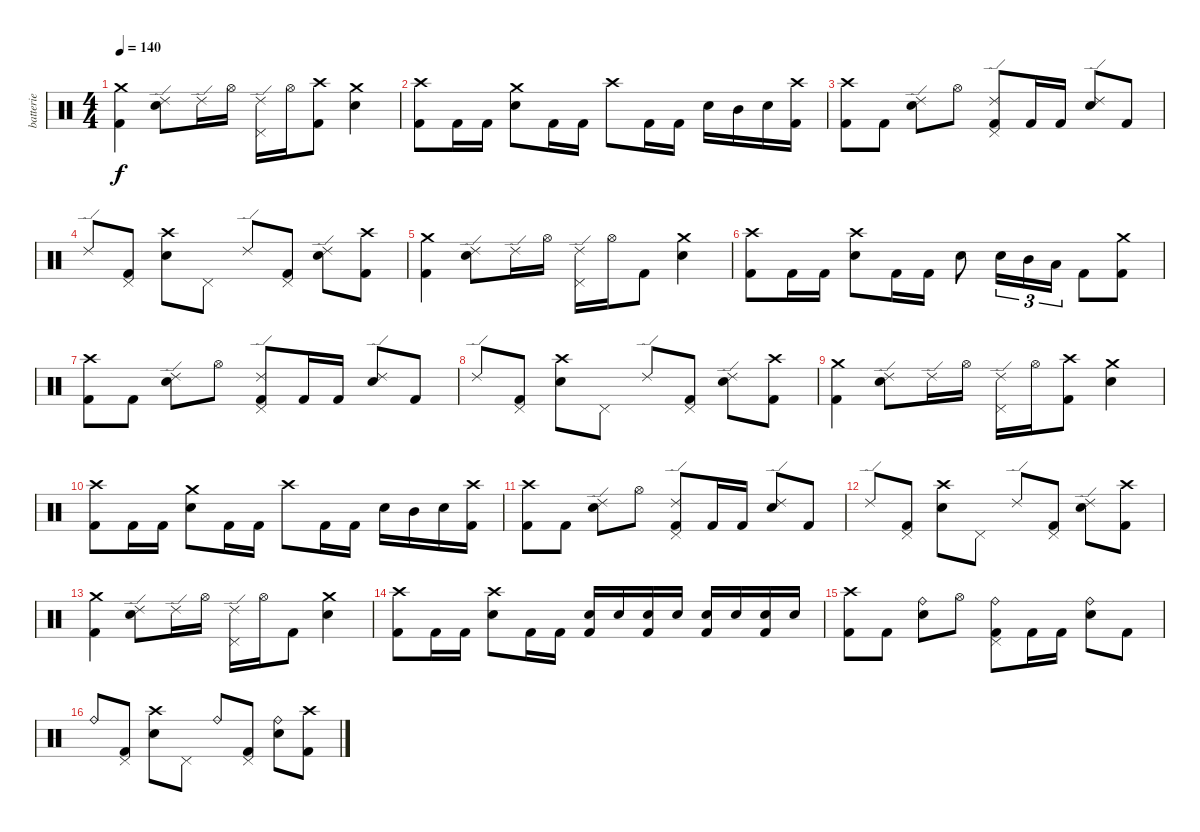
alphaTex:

\track ("batterie" "batterie") {instrument percussion}
\staff {score}
\articulation defaults
\ts (4 4)
\tempo 140
\clef neutral
\ks c
("Crash medium (hit)" "Kick (hit) 2").4{dy f} ("Ride (edge) 2" "Electric Snare (hit)").8 "Ride (edge) 2".16 "Hi-Hat (open)".16 ("Ride (edge) 2" "Pedal Hi-Hat (hit)").16 "Hi-Hat (open)".16 ("Crash high (hit)" "Kick (hit) 2").8 ("Crash medium (hit)" "Electric Snare (hit)").4 |
("Crash high (hit)" "Kick (hit) 2").8 "Kick (hit) 2".16 "Kick (hit) 2".16 ("Crash medium (hit)" "Electric Snare (hit)").8 "Kick (hit) 2".16 "Kick (hit) 2".16 "Crash high (hit)".8 "Kick (hit) 2".16 "Kick (hit) 2".16 "Electric Snare (hit)".16 "Mid Tom (hit)".16 "Electric Snare (hit)".16 ("Crash high (hit)" "Kick (hit) 2").16 |
("Crash high (hit)" "Kick (hit) 2").8 "Kick (hit) 2".8 ("Ride (edge) 2" "Electric Snare (hit)").8 "Hi-Hat (open)".8 ("Ride (edge) 2" "Pedal Hi-Hat (hit)" "Kick (hit) 2").8 "Kick (hit) 2".16 "Kick (hit) 2".16 ("Ride (edge) 2" "Electric Snare (hit)").8 "Kick (hit) 2".8 |
"Ride (edge) 2".8 ("Pedal Hi-Hat (hit)" "Kick (hit) 2").8 ("Crash high (hit)" "Electric Snare (hit)").8 "Pedal Hi-Hat (hit)".8 "Ride (edge) 2".8 ("Pedal Hi-Hat (hit)" "Kick (hit) 2").8 ("Ride (edge) 2" "Electric Snare (hit)").8 ("Crash high (hit)" "Kick (hit) 2").8 |
("Crash medium (hit)" "Kick (hit) 2").4 ("Ride (edge) 2" "Electric Snare (hit)").8 "Ride (edge) 2".16 "Hi-Hat (open)".16 ("Ride (edge) 2" "Pedal Hi-Hat (hit)").16 "Hi-Hat (open)".16 "Kick (hit) 2".8 ("Crash medium (hit)" "Electric Snare (hit)").4 |
("Crash high (hit)" "Kick (hit) 2").8 "Kick (hit) 2".16 "Kick (hit) 2".16 ("Crash high (hit)" "Electric Snare (hit)").8 "Kick (hit) 2".16 "Kick (hit) 2".16 "Electric Snare (hit)".8 "Electric Snare (hit)".16{tu (3 2)} "Mid Tom (hit)".16{tu (3 2)} "Low Floor Tom (hit)".16{tu (3 2)} "Kick (hit) 2".8 ("Crash medium (hit)" "Kick (hit) 2").8 |
("Crash high (hit)" "Kick (hit) 2").8 "Kick (hit) 2".8 ("Ride (edge) 2" "Electric Snare (hit)").8 "Hi-Hat (open)".8 ("Ride (edge) 2" "Pedal Hi-Hat (hit)" "Kick (hit) 2").8 "Kick (hit) 2".16 "Kick (hit) 2".16 ("Ride (edge) 2" "Electric Snare (hit)").8 "Kick (hit) 2".8 |
"Ride (edge) 2".8 ("Pedal Hi-Hat (hit)" "Kick (hit) 2").8 ("Crash high (hit)" "Electric Snare (hit)").8 "Pedal Hi-Hat (hit)".8 "Ride (edge) 2".8 ("Pedal Hi-Hat (hit)" "Kick (hit) 2").8 ("Ride (edge) 2" "Electric Snare (hit)").8 ("Crash high (hit)" "Kick (hit) 2").8 |
("Crash medium (hit)" "Kick (hit) 2").4 ("Ride (edge) 2" "Electric Snare (hit)").8 "Ride (edge) 2".16 "Hi-Hat (open)".16 ("Ride (edge) 2" "Pedal Hi-Hat (hit)").16 "Hi-Hat (open)".16 ("Crash high (hit)" "Kick (hit) 2").8 ("Crash medium (hit)" "Electric Snare (hit)").4 |
("Crash high (hit)" "Kick (hit) 2").8 "Kick (hit) 2".16 "Kick (hit) 2".16 ("Crash medium (hit)" "Electric Snare (hit)").8 "Kick (hit) 2".16 "Kick (hit) 2".16 "Crash high (hit)".8 "Kick (hit) 2".16 "Kick (hit) 2".16 "Electric Snare (hit)".16 "Mid Tom (hit)".16 "Electric Snare (hit)".16 ("Crash high (hit)" "Kick (hit) 2").16 |
("Crash high (hit)" "Kick (hit) 2").8 "Kick (hit) 2".8 ("Ride (edge) 2" "Electric Snare (hit)").8 "Hi-Hat (open)".8 ("Ride (edge) 2" "Pedal Hi-Hat (hit)" "Kick (hit) 2").8 "Kick (hit) 2".16 "Kick (hit) 2".16 ("Ride (edge) 2" "Electric Snare (hit)").8 "Kick (hit) 2".8 |
"Ride (edge) 2".8 ("Pedal Hi-Hat (hit)" "Kick (hit) 2").8 ("Crash high (hit)" "Electric Snare (hit)").8 "Pedal Hi-Hat (hit)".8 "Ride (edge) 2".8 ("Pedal Hi-Hat (hit)" "Kick (hit) 2").8 ("Ride (edge) 2" "Electric Snare (hit)").8 ("Crash high (hit)" "Kick (hit) 2").8 |
("Crash medium (hit)" "Kick (hit) 2").4 ("Ride (edge) 2" "Electric Snare (hit)").8 "Ride (edge) 2".16 "Hi-Hat (open)".16 ("Ride (edge) 2" "Pedal Hi-Hat (hit)").16 "Hi-Hat (open)".16 "Kick (hit) 2".8 ("Crash medium (hit)" "Electric Snare (hit)").4 |
("Crash high (hit)" "Kick (hit) 2").8 "Kick (hit) 2".16 "Kick (hit) 2".16 ("Crash high (hit)" "Electric Snare (hit)").8 "Kick (hit) 2".16 "Kick (hit) 2".16 ("Electric Snare (hit)" "Kick (hit) 2").16 "Electric Snare (hit)".16 ("Electric Snare (hit)" "Kick (hit) 2").16 "Electric Snare (hit)".16 ("Electric Snare (hit)" "Kick (hit) 2").16 "Electric Snare (hit)".16 ("Electric Snare (hit)" "Kick (hit) 2").16 "Electric Snare (hit)".16 |
("Crash high (hit)" "Kick (hit) 2").8 "Kick (hit) 2".8 ("Ride (bell)" "Electric Snare (hit)").8 "Hi-Hat (open)".8 ("Ride (bell)" "Pedal Hi-Hat (hit)" "Kick (hit) 2").8 "Kick (hit) 2".16 "Kick (hit) 2".16 ("Ride (bell)" "Electric Snare (hit)").8 "Kick (hit) 2".8 |
"Ride (bell)".8 ("Pedal Hi-Hat (hit)" "Kick (hit) 2").8 ("Crash high (hit)" "Electric Snare (hit)").8 "Pedal Hi-Hat (hit)".8 "Ride (bell)".8 ("Pedal Hi-Hat (hit)" "Kick (hit) 2").8 ("Ride (bell)" "Electric Snare (hit)").8 ("Crash high (hit)" "Kick (hit) 2").8
